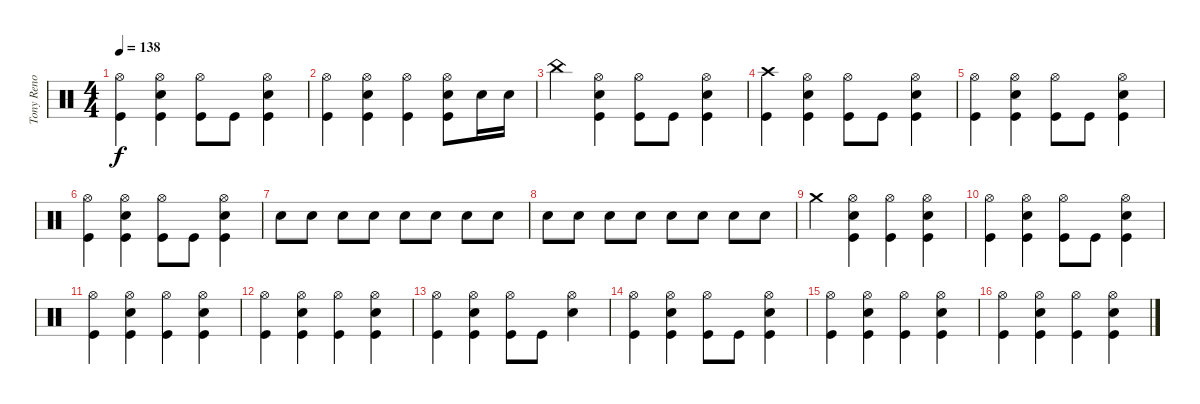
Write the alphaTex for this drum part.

\track ("Tony Reno" "Tony Reno") {instrument percussion}
\staff {score}
\articulation defaults
\ts (4 4)
\tempo 138
\clef neutral
\ks c
("Hi-Hat (open)" "Kick (hit)").4{dy f} ("Snare (hit) 2" "Hi-Hat (open)" "Kick (hit)").4 ("Hi-Hat (open)" "Kick (hit)").8 "Kick (hit)".8 ("Snare (hit) 2" "Hi-Hat (open)" "Kick (hit)").4 |
("Hi-Hat (open)" "Kick (hit)").4 ("Snare (hit) 2" "Hi-Hat (open)" "Kick (hit)").4 ("Hi-Hat (open)" "Kick (hit)").4 ("Snare (hit) 2" "Hi-Hat (open)" "Kick (hit)").8 "Snare (hit) 2".16 "Snare (hit) 2".16 |
"China (hit)".4 ("Snare (hit) 2" "Hi-Hat (open)" "Kick (hit)").4 ("Hi-Hat (open)" "Kick (hit)").8 "Kick (hit)".8 ("Snare (hit) 2" "Hi-Hat (open)" "Kick (hit)").4 |
("Kick (hit)" "Crash high (hit)").4 ("Snare (hit) 2" "Hi-Hat (open)" "Kick (hit)").4 ("Hi-Hat (open)" "Kick (hit)").8 "Kick (hit)".8 ("Snare (hit) 2" "Hi-Hat (open)" "Kick (hit)").4 |
("Hi-Hat (open)" "Kick (hit)").4 ("Snare (hit) 2" "Hi-Hat (open)" "Kick (hit)").4 ("Hi-Hat (open)" "Kick (hit)").8 "Kick (hit)".8 ("Snare (hit) 2" "Hi-Hat (open)" "Kick (hit)").4 |
("Hi-Hat (open)" "Kick (hit)").4 ("Snare (hit) 2" "Hi-Hat (open)" "Kick (hit)").4 ("Hi-Hat (open)" "Kick (hit)").8 "Kick (hit)".8 ("Snare (hit) 2" "Hi-Hat (open)" "Kick (hit)").4 |
"Snare (hit) 2".8 "Snare (hit) 2".8 "Snare (hit) 2".8 "Snare (hit) 2".8 "Snare (hit) 2".8 "Snare (hit) 2".8 "Snare (hit) 2".8 "Snare (hit) 2".8 |
"Snare (hit) 2".8 "Snare (hit) 2".8 "Snare (hit) 2".8 "Snare (hit) 2".8 "Snare (hit) 2".8 "Snare (hit) 2".8 "Snare (hit) 2".8 "Snare (hit) 2".8 |
"Crash medium (hit)".4 ("Snare (hit) 2" "Hi-Hat (open)" "Kick (hit)").4 ("Hi-Hat (open)" "Kick (hit)").4 ("Snare (hit) 2" "Hi-Hat (open)" "Kick (hit)").4 |
("Hi-Hat (open)" "Kick (hit)").4 ("Snare (hit) 2" "Hi-Hat (open)" "Kick (hit)").4 ("Hi-Hat (open)" "Kick (hit)").8 "Kick (hit)".8 ("Snare (hit) 2" "Hi-Hat (open)" "Kick (hit)").4 |
("Hi-Hat (open)" "Kick (hit)").4 ("Snare (hit) 2" "Hi-Hat (open)" "Kick (hit)").4 ("Hi-Hat (open)" "Kick (hit)").4 ("Snare (hit) 2" "Hi-Hat (open)" "Kick (hit)").4 |
("Hi-Hat (open)" "Kick (hit)").4 ("Snare (hit) 2" "Hi-Hat (open)" "Kick (hit)").4 ("Hi-Hat (open)" "Kick (hit)").4 ("Snare (hit) 2" "Hi-Hat (open)" "Kick (hit)").4 |
("Hi-Hat (open)" "Kick (hit)").4 ("Snare (hit) 2" "Hi-Hat (open)" "Kick (hit)").4 ("Hi-Hat (open)" "Kick (hit)").8 "Kick (hit)".8 ("Snare (hit) 2" "Hi-Hat (open)").4 |
("Hi-Hat (open)" "Kick (hit)").4 ("Snare (hit) 2" "Hi-Hat (open)" "Kick (hit)").4 ("Hi-Hat (open)" "Kick (hit)").8 "Kick (hit)".8 ("Snare (hit) 2" "Hi-Hat (open)" "Kick (hit)").4 |
("Hi-Hat (open)" "Kick (hit)").4 ("Snare (hit) 2" "Hi-Hat (open)" "Kick (hit)").4 ("Hi-Hat (open)" "Kick (hit)").4 ("Snare (hit) 2" "Hi-Hat (open)" "Kick (hit)").4 |
("Hi-Hat (open)" "Kick (hit)").4 ("Snare (hit) 2" "Hi-Hat (open)" "Kick (hit)").4 ("Hi-Hat (open)" "Kick (hit)").4 ("Snare (hit) 2" "Hi-Hat (open)" "Kick (hit)").4
